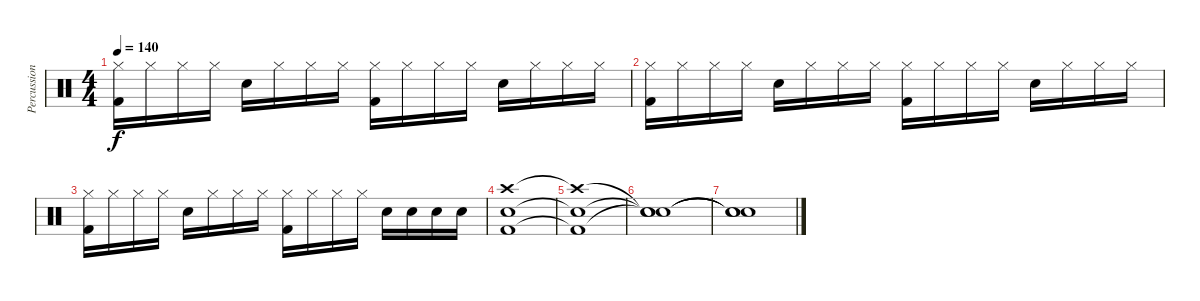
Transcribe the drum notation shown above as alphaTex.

\track ("Percussion" "Percussion") {instrument percussion}
\staff {score}
\articulation defaults
\ts (4 4)
\tempo 140
\clef neutral
\ks c
("Hi-Hat (closed)" "Kick (hit) 2").16{dy f} "Hi-Hat (closed)".16 "Hi-Hat (closed)".16 "Hi-Hat (closed)".16 "Electric Snare (hit)".16 "Hi-Hat (closed)".16 "Hi-Hat (closed)".16 "Hi-Hat (closed)".16 ("Hi-Hat (closed)" "Kick (hit) 2").16 "Hi-Hat (closed)".16 "Hi-Hat (closed)".16 "Hi-Hat (closed)".16 "Electric Snare (hit)".16 "Hi-Hat (closed)".16 "Hi-Hat (closed)".16 "Hi-Hat (closed)".16 |
("Hi-Hat (closed)" "Kick (hit) 2").16 "Hi-Hat (closed)".16 "Hi-Hat (closed)".16 "Hi-Hat (closed)".16 "Electric Snare (hit)".16 "Hi-Hat (closed)".16 "Hi-Hat (closed)".16 "Hi-Hat (closed)".16 ("Hi-Hat (closed)" "Kick (hit) 2").16 "Hi-Hat (closed)".16 "Hi-Hat (closed)".16 "Hi-Hat (closed)".16 "Electric Snare (hit)".16 "Hi-Hat (closed)".16 "Hi-Hat (closed)".16 "Hi-Hat (closed)".16 |
("Hi-Hat (closed)" "Kick (hit) 2").16 "Hi-Hat (closed)".16 "Hi-Hat (closed)".16 "Hi-Hat (closed)".16 "Electric Snare (hit)".16 "Hi-Hat (closed)".16 "Hi-Hat (closed)".16 "Hi-Hat (closed)".16 ("Hi-Hat (closed)" "Kick (hit) 2").16 "Hi-Hat (closed)".16 "Hi-Hat (closed)".16 "Hi-Hat (closed)".16 "Electric Snare (hit)".16 "Electric Snare (hit)".16 "Electric Snare (hit)".16 "Electric Snare (hit)".16 |
("Crash high (hit)" "Electric Snare (hit)" "Kick (hit) 2").1 |
("Crash high (hit)"{t} "Electric Snare (hit)"{t} "Kick (hit) 2"{t}).1 |
("Snare (hit)"{t} "Snare (hit)"{t} "Snare (hit)"{t}).1 |
("Snare (hit)"{t} "Snare (hit)"{t} "Snare (hit)"{t}).1
